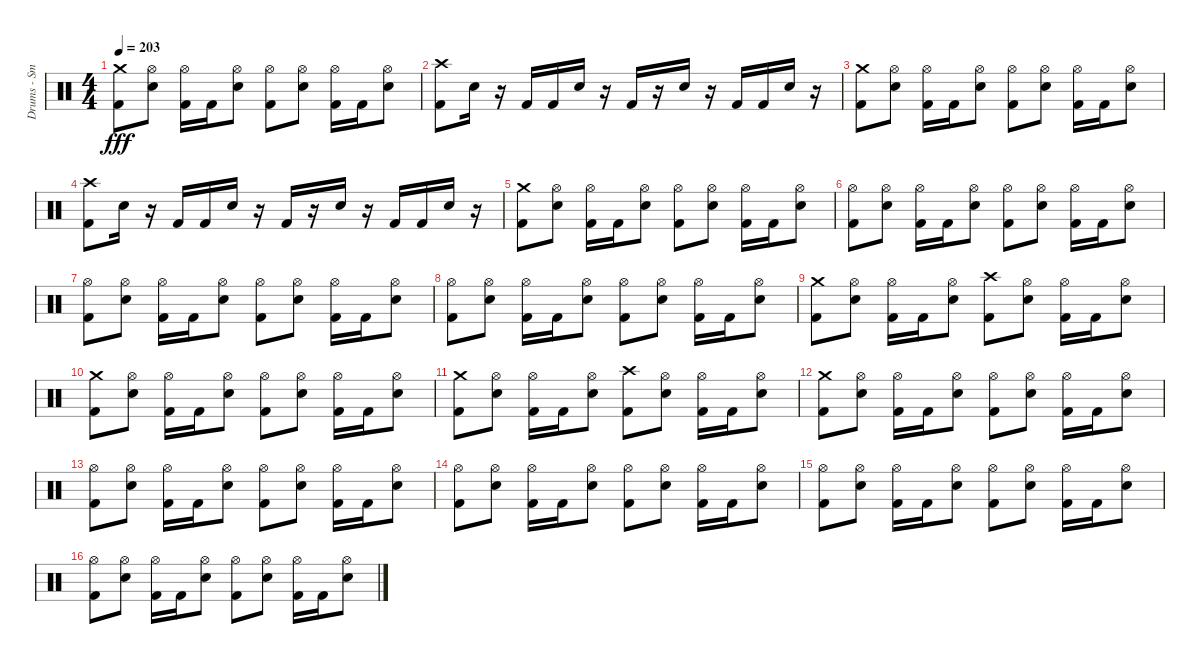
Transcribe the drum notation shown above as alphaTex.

\track ("Drums - Smelly" "Drums - Sm") {instrument percussion}
\staff {score}
\articulation defaults
\ts (4 4)
\tempo 203
\clef neutral
\ks c
("Kick (hit) 2" "Crash medium (hit)").8{dy fff} ("Electric Snare (hit)" "Hi-Hat (open)").8 ("Kick (hit) 2" "Hi-Hat (open)").16 "Kick (hit) 2".16 ("Electric Snare (hit)" "Hi-Hat (open)").8 ("Kick (hit) 2" "Hi-Hat (open)").8 ("Electric Snare (hit)" "Hi-Hat (open)").8 ("Kick (hit) 2" "Hi-Hat (open)").16 "Kick (hit) 2".16 ("Electric Snare (hit)" "Hi-Hat (open)").8 |
("Crash high (hit)" "Kick (hit) 2").8 "Electric Snare (hit)".16 r.16 "Kick (hit) 2".16 "Kick (hit) 2".16 "Electric Snare (hit)".16 r.16 "Kick (hit) 2".16 r.16 "Electric Snare (hit)".16 r.16 "Kick (hit) 2".16 "Kick (hit) 2".16 "Electric Snare (hit)".16 r.16 |
("Kick (hit) 2" "Crash medium (hit)").8 ("Electric Snare (hit)" "Hi-Hat (open)").8 ("Kick (hit) 2" "Hi-Hat (open)").16 "Kick (hit) 2".16 ("Electric Snare (hit)" "Hi-Hat (open)").8 ("Kick (hit) 2" "Hi-Hat (open)").8 ("Electric Snare (hit)" "Hi-Hat (open)").8 ("Kick (hit) 2" "Hi-Hat (open)").16 "Kick (hit) 2".16 ("Electric Snare (hit)" "Hi-Hat (open)").8 |
("Crash high (hit)" "Kick (hit) 2").8 "Electric Snare (hit)".16 r.16 "Kick (hit) 2".16 "Kick (hit) 2".16 "Electric Snare (hit)".16 r.16 "Kick (hit) 2".16 r.16 "Electric Snare (hit)".16 r.16 "Kick (hit) 2".16 "Kick (hit) 2".16 "Electric Snare (hit)".16 r.16 |
("Kick (hit) 2" "Crash medium (hit)").8 ("Electric Snare (hit)" "Hi-Hat (open)").8 ("Kick (hit) 2" "Hi-Hat (open)").16 "Kick (hit) 2".16 ("Electric Snare (hit)" "Hi-Hat (open)").8 ("Kick (hit) 2" "Hi-Hat (open)").8 ("Electric Snare (hit)" "Hi-Hat (open)").8 ("Kick (hit) 2" "Hi-Hat (open)").16 "Kick (hit) 2".16 ("Electric Snare (hit)" "Hi-Hat (open)").8 |
("Kick (hit) 2" "Hi-Hat (open)").8 ("Electric Snare (hit)" "Hi-Hat (open)").8 ("Kick (hit) 2" "Hi-Hat (open)").16 "Kick (hit) 2".16 ("Electric Snare (hit)" "Hi-Hat (open)").8 ("Kick (hit) 2" "Hi-Hat (open)").8 ("Electric Snare (hit)" "Hi-Hat (open)").8 ("Kick (hit) 2" "Hi-Hat (open)").16 "Kick (hit) 2".16 ("Electric Snare (hit)" "Hi-Hat (open)").8 |
("Kick (hit) 2" "Hi-Hat (open)").8 ("Electric Snare (hit)" "Hi-Hat (open)").8 ("Kick (hit) 2" "Hi-Hat (open)").16 "Kick (hit) 2".16 ("Electric Snare (hit)" "Hi-Hat (open)").8 ("Kick (hit) 2" "Hi-Hat (open)").8 ("Electric Snare (hit)" "Hi-Hat (open)").8 ("Kick (hit) 2" "Hi-Hat (open)").16 "Kick (hit) 2".16 ("Electric Snare (hit)" "Hi-Hat (open)").8 |
("Kick (hit) 2" "Hi-Hat (open)").8 ("Electric Snare (hit)" "Hi-Hat (open)").8 ("Kick (hit) 2" "Hi-Hat (open)").16 "Kick (hit) 2".16 ("Electric Snare (hit)" "Hi-Hat (open)").8 ("Kick (hit) 2" "Hi-Hat (open)").8 ("Electric Snare (hit)" "Hi-Hat (open)").8 ("Kick (hit) 2" "Hi-Hat (open)").16 "Kick (hit) 2".16 ("Electric Snare (hit)" "Hi-Hat (open)").8 |
("Kick (hit) 2" "Crash medium (hit)").8 ("Electric Snare (hit)" "Hi-Hat (open)").8 ("Kick (hit) 2" "Hi-Hat (open)").16 "Kick (hit) 2".16 ("Electric Snare (hit)" "Hi-Hat (open)").8 ("Kick (hit) 2" "Crash high (hit)").8 ("Electric Snare (hit)" "Hi-Hat (open)").8 ("Kick (hit) 2" "Hi-Hat (open)").16 "Kick (hit) 2".16 ("Electric Snare (hit)" "Hi-Hat (open)").8 |
("Kick (hit) 2" "Crash medium (hit)").8 ("Electric Snare (hit)" "Hi-Hat (open)").8 ("Kick (hit) 2" "Hi-Hat (open)").16 "Kick (hit) 2".16 ("Electric Snare (hit)" "Hi-Hat (open)").8 ("Kick (hit) 2" "Hi-Hat (open)").8 ("Electric Snare (hit)" "Hi-Hat (open)").8 ("Kick (hit) 2" "Hi-Hat (open)").16 "Kick (hit) 2".16 ("Electric Snare (hit)" "Hi-Hat (open)").8 |
("Kick (hit) 2" "Crash medium (hit)").8 ("Electric Snare (hit)" "Hi-Hat (open)").8 ("Kick (hit) 2" "Hi-Hat (open)").16 "Kick (hit) 2".16 ("Electric Snare (hit)" "Hi-Hat (open)").8 ("Kick (hit) 2" "Crash high (hit)").8 ("Electric Snare (hit)" "Hi-Hat (open)").8 ("Kick (hit) 2" "Hi-Hat (open)").16 "Kick (hit) 2".16 ("Electric Snare (hit)" "Hi-Hat (open)").8 |
("Kick (hit) 2" "Crash medium (hit)").8 ("Electric Snare (hit)" "Hi-Hat (open)").8 ("Kick (hit) 2" "Hi-Hat (open)").16 "Kick (hit) 2".16 ("Electric Snare (hit)" "Hi-Hat (open)").8 ("Kick (hit) 2" "Hi-Hat (open)").8 ("Electric Snare (hit)" "Hi-Hat (open)").8 ("Kick (hit) 2" "Hi-Hat (open)").16 "Kick (hit) 2".16 ("Electric Snare (hit)" "Hi-Hat (open)").8 |
("Kick (hit) 2" "Hi-Hat (open)").8 ("Electric Snare (hit)" "Hi-Hat (open)").8 ("Kick (hit) 2" "Hi-Hat (open)").16 "Kick (hit) 2".16 ("Electric Snare (hit)" "Hi-Hat (open)").8 ("Kick (hit) 2" "Hi-Hat (open)").8 ("Electric Snare (hit)" "Hi-Hat (open)").8 ("Kick (hit) 2" "Hi-Hat (open)").16 "Kick (hit) 2".16 ("Electric Snare (hit)" "Hi-Hat (open)").8 |
("Kick (hit) 2" "Hi-Hat (open)").8 ("Electric Snare (hit)" "Hi-Hat (open)").8 ("Kick (hit) 2" "Hi-Hat (open)").16 "Kick (hit) 2".16 ("Electric Snare (hit)" "Hi-Hat (open)").8 ("Kick (hit) 2" "Hi-Hat (open)").8 ("Electric Snare (hit)" "Hi-Hat (open)").8 ("Kick (hit) 2" "Hi-Hat (open)").16 "Kick (hit) 2".16 ("Electric Snare (hit)" "Hi-Hat (open)").8 |
("Kick (hit) 2" "Hi-Hat (open)").8 ("Electric Snare (hit)" "Hi-Hat (open)").8 ("Kick (hit) 2" "Hi-Hat (open)").16 "Kick (hit) 2".16 ("Electric Snare (hit)" "Hi-Hat (open)").8 ("Kick (hit) 2" "Hi-Hat (open)").8 ("Electric Snare (hit)" "Hi-Hat (open)").8 ("Kick (hit) 2" "Hi-Hat (open)").16 "Kick (hit) 2".16 ("Electric Snare (hit)" "Hi-Hat (open)").8 |
("Kick (hit) 2" "Hi-Hat (open)").8 ("Electric Snare (hit)" "Hi-Hat (open)").8 ("Kick (hit) 2" "Hi-Hat (open)").16 "Kick (hit) 2".16 ("Electric Snare (hit)" "Hi-Hat (open)").8 ("Kick (hit) 2" "Hi-Hat (open)").8 ("Electric Snare (hit)" "Hi-Hat (open)").8 ("Kick (hit) 2" "Hi-Hat (open)").16 "Kick (hit) 2".16 ("Electric Snare (hit)" "Hi-Hat (open)").8
